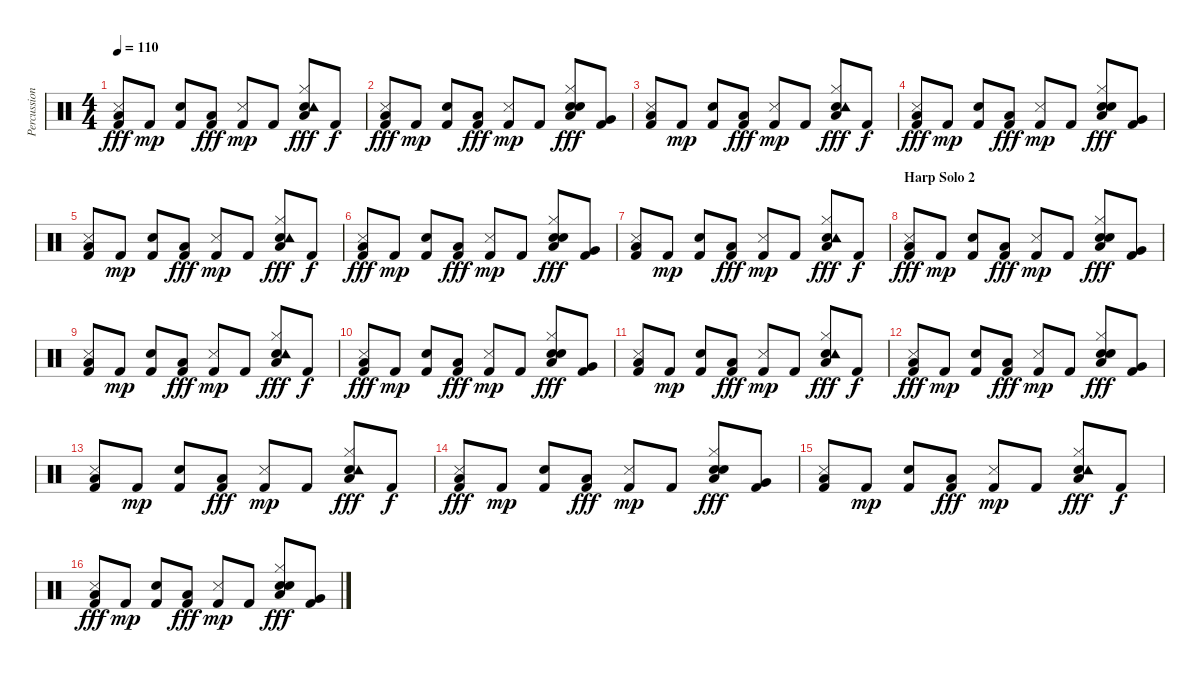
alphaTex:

\track ("Percussion" "Percussion") {instrument percussion}
\staff {score}
\articulation defaults
\ts (4 4)
\tempo 110
\clef neutral
\ks c
("Snare (side stick) 3" "Low Floor Tom (hit)" "Kick (hit) 2").8{dy fff} "Kick (hit) 2".8{dy mp} ("Electric Snare (hit)" "Kick (hit) 2").8 ("Low Floor Tom (hit)" "Kick (hit) 2").8{dy fff} ("Snare (side stick) 3" "Kick (hit) 2").8{dy mp} "Kick (hit) 2".8 ("Electric Snare (hit)" "Hi-Hat (closed)" "Low Floor Tom (hit)" "Tambourine (hit)").8{dy fff} "Kick (hit) 2".8{dy f} |
("Snare (side stick) 3" "Low Floor Tom (hit)" "Kick (hit) 2").8{dy fff} "Kick (hit) 2".8{dy mp} ("Electric Snare (hit)" "Kick (hit) 2").8 ("Low Floor Tom (hit)" "Kick (hit) 2").8{dy fff} ("Snare (side stick) 3" "Kick (hit) 2").8{dy mp} "Kick (hit) 2".8 ("Electric Snare (hit)" "Hi-Hat (closed)" "Low Floor Tom (hit)" "Snare (hit) 2").8{dy fff} ("Very Low Tom (hit)" "Kick (hit) 2").8 |
("Snare (side stick) 3" "Low Floor Tom (hit)" "Kick (hit) 2").8 "Kick (hit) 2".8{dy mp} ("Electric Snare (hit)" "Kick (hit) 2").8 ("Low Floor Tom (hit)" "Kick (hit) 2").8{dy fff} ("Snare (side stick) 3" "Kick (hit) 2").8{dy mp} "Kick (hit) 2".8 ("Electric Snare (hit)" "Hi-Hat (closed)" "Low Floor Tom (hit)" "Tambourine (hit)").8{dy fff} "Kick (hit) 2".8{dy f} |
("Snare (side stick) 3" "Low Floor Tom (hit)" "Kick (hit) 2").8{dy fff} "Kick (hit) 2".8{dy mp} ("Electric Snare (hit)" "Kick (hit) 2").8 ("Low Floor Tom (hit)" "Kick (hit) 2").8{dy fff} ("Snare (side stick) 3" "Kick (hit) 2").8{dy mp} "Kick (hit) 2".8 ("Electric Snare (hit)" "Hi-Hat (closed)" "Low Floor Tom (hit)" "Snare (hit) 2").8{dy fff} ("Very Low Tom (hit)" "Kick (hit) 2").8 |
("Snare (side stick) 3" "Low Floor Tom (hit)" "Kick (hit) 2").8 "Kick (hit) 2".8{dy mp} ("Electric Snare (hit)" "Kick (hit) 2").8 ("Low Floor Tom (hit)" "Kick (hit) 2").8{dy fff} ("Snare (side stick) 3" "Kick (hit) 2").8{dy mp} "Kick (hit) 2".8 ("Electric Snare (hit)" "Hi-Hat (closed)" "Low Floor Tom (hit)" "Tambourine (hit)").8{dy fff} "Kick (hit) 2".8{dy f} |
("Snare (side stick) 3" "Low Floor Tom (hit)" "Kick (hit) 2").8{dy fff} "Kick (hit) 2".8{dy mp} ("Electric Snare (hit)" "Kick (hit) 2").8 ("Low Floor Tom (hit)" "Kick (hit) 2").8{dy fff} ("Snare (side stick) 3" "Kick (hit) 2").8{dy mp} "Kick (hit) 2".8 ("Electric Snare (hit)" "Hi-Hat (closed)" "Low Floor Tom (hit)" "Snare (hit) 2").8{dy fff} ("Very Low Tom (hit)" "Kick (hit) 2").8 |
("Snare (side stick) 3" "Low Floor Tom (hit)" "Kick (hit) 2").8 "Kick (hit) 2".8{dy mp} ("Electric Snare (hit)" "Kick (hit) 2").8 ("Low Floor Tom (hit)" "Kick (hit) 2").8{dy fff} ("Snare (side stick) 3" "Kick (hit) 2").8{dy mp} "Kick (hit) 2".8 ("Electric Snare (hit)" "Hi-Hat (closed)" "Low Floor Tom (hit)" "Tambourine (hit)").8{dy fff} "Kick (hit) 2".8{dy f} |
\section ("" "Harp Solo 2")
("Snare (side stick) 3" "Low Floor Tom (hit)" "Kick (hit) 2").8{dy fff} "Kick (hit) 2".8{dy mp} ("Electric Snare (hit)" "Kick (hit) 2").8 ("Low Floor Tom (hit)" "Kick (hit) 2").8{dy fff} ("Snare (side stick) 3" "Kick (hit) 2").8{dy mp} "Kick (hit) 2".8 ("Electric Snare (hit)" "Hi-Hat (closed)" "Low Floor Tom (hit)" "Snare (hit) 2").8{dy fff} ("Very Low Tom (hit)" "Kick (hit) 2").8 |
("Snare (side stick) 3" "Low Floor Tom (hit)" "Kick (hit) 2").8 "Kick (hit) 2".8{dy mp} ("Electric Snare (hit)" "Kick (hit) 2").8 ("Low Floor Tom (hit)" "Kick (hit) 2").8{dy fff} ("Snare (side stick) 3" "Kick (hit) 2").8{dy mp} "Kick (hit) 2".8 ("Electric Snare (hit)" "Hi-Hat (closed)" "Low Floor Tom (hit)" "Tambourine (hit)").8{dy fff} "Kick (hit) 2".8{dy f} |
("Snare (side stick) 3" "Low Floor Tom (hit)" "Kick (hit) 2").8{dy fff} "Kick (hit) 2".8{dy mp} ("Electric Snare (hit)" "Kick (hit) 2").8 ("Low Floor Tom (hit)" "Kick (hit) 2").8{dy fff} ("Snare (side stick) 3" "Kick (hit) 2").8{dy mp} "Kick (hit) 2".8 ("Electric Snare (hit)" "Hi-Hat (closed)" "Low Floor Tom (hit)" "Snare (hit) 2").8{dy fff} ("Very Low Tom (hit)" "Kick (hit) 2").8 |
("Snare (side stick) 3" "Low Floor Tom (hit)" "Kick (hit) 2").8 "Kick (hit) 2".8{dy mp} ("Electric Snare (hit)" "Kick (hit) 2").8 ("Low Floor Tom (hit)" "Kick (hit) 2").8{dy fff} ("Snare (side stick) 3" "Kick (hit) 2").8{dy mp} "Kick (hit) 2".8 ("Electric Snare (hit)" "Hi-Hat (closed)" "Low Floor Tom (hit)" "Tambourine (hit)").8{dy fff} "Kick (hit) 2".8{dy f} |
("Snare (side stick) 3" "Low Floor Tom (hit)" "Kick (hit) 2").8{dy fff} "Kick (hit) 2".8{dy mp} ("Electric Snare (hit)" "Kick (hit) 2").8 ("Low Floor Tom (hit)" "Kick (hit) 2").8{dy fff} ("Snare (side stick) 3" "Kick (hit) 2").8{dy mp} "Kick (hit) 2".8 ("Electric Snare (hit)" "Hi-Hat (closed)" "Low Floor Tom (hit)" "Snare (hit) 2").8{dy fff} ("Very Low Tom (hit)" "Kick (hit) 2").8 |
("Snare (side stick) 3" "Low Floor Tom (hit)" "Kick (hit) 2").8 "Kick (hit) 2".8{dy mp} ("Electric Snare (hit)" "Kick (hit) 2").8 ("Low Floor Tom (hit)" "Kick (hit) 2").8{dy fff} ("Snare (side stick) 3" "Kick (hit) 2").8{dy mp} "Kick (hit) 2".8 ("Electric Snare (hit)" "Hi-Hat (closed)" "Low Floor Tom (hit)" "Tambourine (hit)").8{dy fff} "Kick (hit) 2".8{dy f} |
("Snare (side stick) 3" "Low Floor Tom (hit)" "Kick (hit) 2").8{dy fff} "Kick (hit) 2".8{dy mp} ("Electric Snare (hit)" "Kick (hit) 2").8 ("Low Floor Tom (hit)" "Kick (hit) 2").8{dy fff} ("Snare (side stick) 3" "Kick (hit) 2").8{dy mp} "Kick (hit) 2".8 ("Electric Snare (hit)" "Hi-Hat (closed)" "Low Floor Tom (hit)" "Snare (hit) 2").8{dy fff} ("Very Low Tom (hit)" "Kick (hit) 2").8 |
("Snare (side stick) 3" "Low Floor Tom (hit)" "Kick (hit) 2").8 "Kick (hit) 2".8{dy mp} ("Electric Snare (hit)" "Kick (hit) 2").8 ("Low Floor Tom (hit)" "Kick (hit) 2").8{dy fff} ("Snare (side stick) 3" "Kick (hit) 2").8{dy mp} "Kick (hit) 2".8 ("Electric Snare (hit)" "Hi-Hat (closed)" "Low Floor Tom (hit)" "Tambourine (hit)").8{dy fff} "Kick (hit) 2".8{dy f} |
("Snare (side stick) 3" "Low Floor Tom (hit)" "Kick (hit) 2").8{dy fff} "Kick (hit) 2".8{dy mp} ("Electric Snare (hit)" "Kick (hit) 2").8 ("Low Floor Tom (hit)" "Kick (hit) 2").8{dy fff} ("Snare (side stick) 3" "Kick (hit) 2").8{dy mp} "Kick (hit) 2".8 ("Electric Snare (hit)" "Hi-Hat (closed)" "Low Floor Tom (hit)" "Snare (hit) 2").8{dy fff} ("Very Low Tom (hit)" "Kick (hit) 2").8
